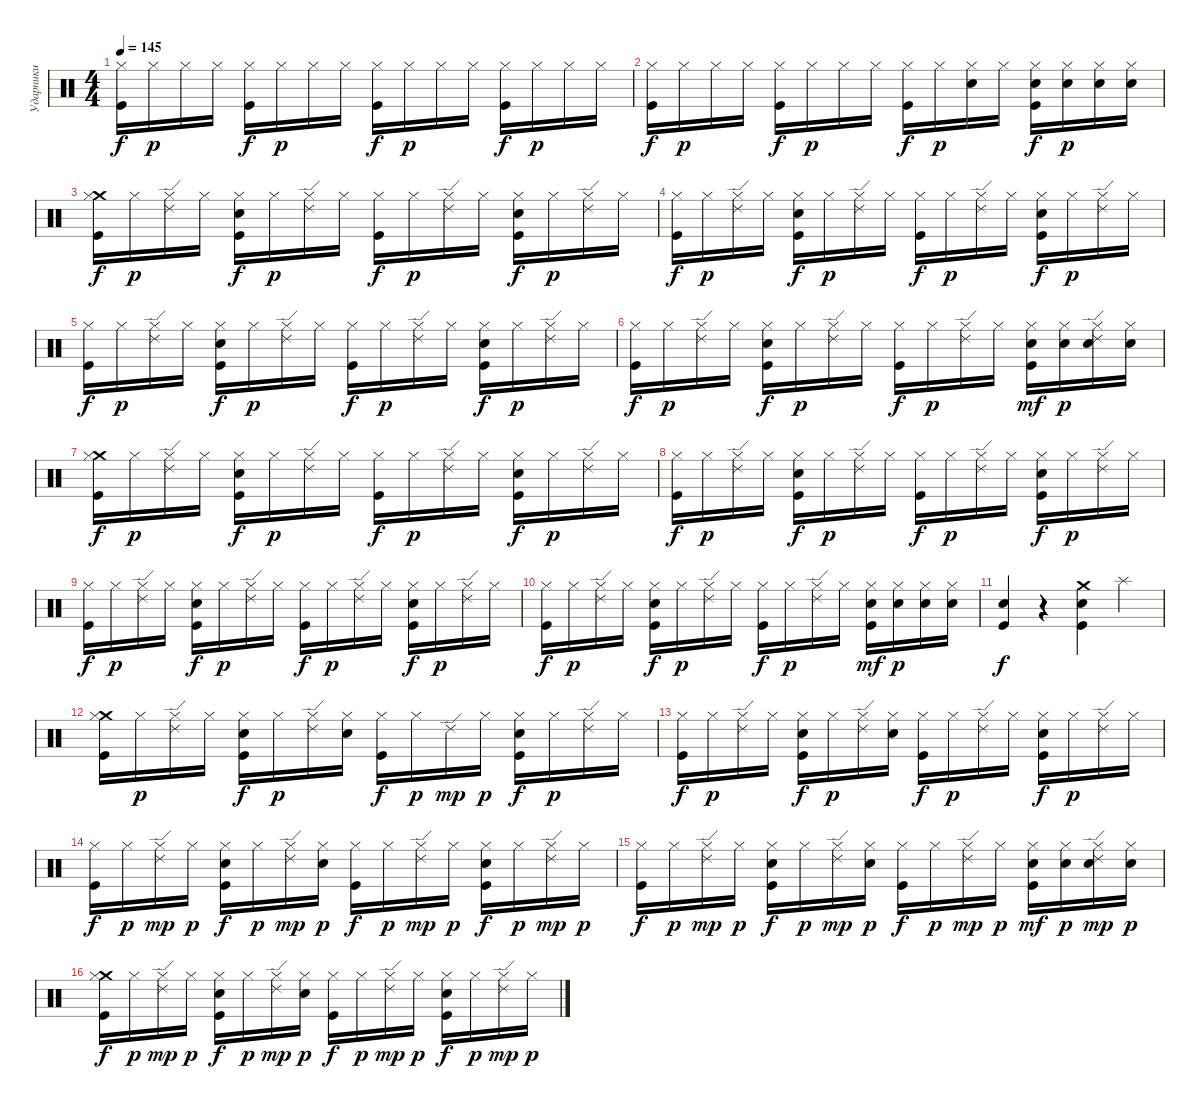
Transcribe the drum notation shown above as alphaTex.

\track ("Ударники" "Ударники") {instrument percussion}
\staff {score}
\articulation defaults
\ts (4 4)
\tempo 145
\clef neutral
\ks c
("Kick (hit)" "Hi-Hat (closed)").16{dy f} "Hi-Hat (closed)".16{dy p} "Hi-Hat (closed)".16 "Hi-Hat (closed)".16 ("Kick (hit)" "Hi-Hat (closed)").16{dy f} "Hi-Hat (closed)".16{dy p} "Hi-Hat (closed)".16 "Hi-Hat (closed)".16 ("Kick (hit)" "Hi-Hat (closed)").16{dy f} "Hi-Hat (closed)".16{dy p} "Hi-Hat (closed)".16 "Hi-Hat (closed)".16 ("Kick (hit)" "Hi-Hat (closed)").16{dy f} "Hi-Hat (closed)".16{dy p} "Hi-Hat (closed)".16 "Hi-Hat (closed)".16 |
("Kick (hit)" "Hi-Hat (closed)").16{dy f} "Hi-Hat (closed)".16{dy p} "Hi-Hat (closed)".16 "Hi-Hat (closed)".16 ("Kick (hit)" "Hi-Hat (closed)").16{dy f} "Hi-Hat (closed)".16{dy p} "Hi-Hat (closed)".16 "Hi-Hat (closed)".16 ("Kick (hit)" "Hi-Hat (closed)").16{dy f} "Hi-Hat (closed)".16{dy p} ("Hi-Hat (closed)" "Electric Snare (hit)").16 "Hi-Hat (closed)".16 ("Kick (hit)" "Hi-Hat (closed)" "Electric Snare (hit)").16{dy f} ("Hi-Hat (closed)" "Electric Snare (hit)").16{dy p} ("Hi-Hat (closed)" "Electric Snare (hit)").16 ("Hi-Hat (closed)" "Electric Snare (hit)").16 |
("Crash medium (hit)" "Kick (hit)" "Hi-Hat (closed)").16{dy f} "Hi-Hat (closed)".16{dy p} ("Ride (edge) 2" "Hi-Hat (closed)").16 "Hi-Hat (closed)".16 ("Electric Snare (hit)" "Kick (hit)" "Hi-Hat (closed)").16{dy f} "Hi-Hat (closed)".16{dy p} ("Ride (edge) 2" "Hi-Hat (closed)").16 "Hi-Hat (closed)".16 ("Kick (hit)" "Hi-Hat (closed)").16{dy f} "Hi-Hat (closed)".16{dy p} ("Ride (edge) 2" "Hi-Hat (closed)").16 "Hi-Hat (closed)".16 ("Electric Snare (hit)" "Kick (hit)" "Hi-Hat (closed)").16{dy f} "Hi-Hat (closed)".16{dy p} ("Ride (edge) 2" "Hi-Hat (closed)").16 "Hi-Hat (closed)".16 |
("Kick (hit)" "Hi-Hat (closed)").16{dy f} "Hi-Hat (closed)".16{dy p} ("Ride (edge) 2" "Hi-Hat (closed)").16 "Hi-Hat (closed)".16 ("Electric Snare (hit)" "Kick (hit)" "Hi-Hat (closed)").16{dy f} "Hi-Hat (closed)".16{dy p} ("Ride (edge) 2" "Hi-Hat (closed)").16 "Hi-Hat (closed)".16 ("Kick (hit)" "Hi-Hat (closed)").16{dy f} "Hi-Hat (closed)".16{dy p} ("Ride (edge) 2" "Hi-Hat (closed)").16 "Hi-Hat (closed)".16 ("Electric Snare (hit)" "Kick (hit)" "Hi-Hat (closed)").16{dy f} "Hi-Hat (closed)".16{dy p} ("Ride (edge) 2" "Hi-Hat (closed)").16 "Hi-Hat (closed)".16 |
("Kick (hit)" "Hi-Hat (closed)").16{dy f} "Hi-Hat (closed)".16{dy p} ("Ride (edge) 2" "Hi-Hat (closed)").16 "Hi-Hat (closed)".16 ("Electric Snare (hit)" "Kick (hit)" "Hi-Hat (closed)").16{dy f} "Hi-Hat (closed)".16{dy p} ("Ride (edge) 2" "Hi-Hat (closed)").16 "Hi-Hat (closed)".16 ("Kick (hit)" "Hi-Hat (closed)").16{dy f} "Hi-Hat (closed)".16{dy p} ("Ride (edge) 2" "Hi-Hat (closed)").16 "Hi-Hat (closed)".16 ("Electric Snare (hit)" "Kick (hit)" "Hi-Hat (closed)").16{dy f} "Hi-Hat (closed)".16{dy p} ("Ride (edge) 2" "Hi-Hat (closed)").16 "Hi-Hat (closed)".16 |
("Kick (hit)" "Hi-Hat (closed)").16{dy f} "Hi-Hat (closed)".16{dy p} ("Ride (edge) 2" "Hi-Hat (closed)").16 "Hi-Hat (closed)".16 ("Electric Snare (hit)" "Kick (hit)" "Hi-Hat (closed)").16{dy f} "Hi-Hat (closed)".16{dy p} ("Ride (edge) 2" "Hi-Hat (closed)").16 "Hi-Hat (closed)".16 ("Kick (hit)" "Hi-Hat (closed)").16{dy f} "Hi-Hat (closed)".16{dy p} ("Ride (edge) 2" "Hi-Hat (closed)").16 "Hi-Hat (closed)".16 ("Electric Snare (hit)" "Kick (hit)" "Hi-Hat (closed)").16{dy mf} ("Electric Snare (hit)" "Hi-Hat (closed)").16{dy p} ("Electric Snare (hit)" "Ride (edge) 2" "Hi-Hat (closed)").16 ("Electric Snare (hit)" "Hi-Hat (closed)").16 |
("Crash medium (hit)" "Kick (hit)" "Hi-Hat (closed)").16{dy f} "Hi-Hat (closed)".16{dy p} ("Ride (edge) 2" "Hi-Hat (closed)").16 "Hi-Hat (closed)".16 ("Electric Snare (hit)" "Kick (hit)" "Hi-Hat (closed)").16{dy f} "Hi-Hat (closed)".16{dy p} ("Ride (edge) 2" "Hi-Hat (closed)").16 "Hi-Hat (closed)".16 ("Kick (hit)" "Hi-Hat (closed)").16{dy f} "Hi-Hat (closed)".16{dy p} ("Ride (edge) 2" "Hi-Hat (closed)").16 "Hi-Hat (closed)".16 ("Electric Snare (hit)" "Kick (hit)" "Hi-Hat (closed)").16{dy f} "Hi-Hat (closed)".16{dy p} ("Ride (edge) 2" "Hi-Hat (closed)").16 "Hi-Hat (closed)".16 |
("Kick (hit)" "Hi-Hat (closed)").16{dy f} "Hi-Hat (closed)".16{dy p} ("Ride (edge) 2" "Hi-Hat (closed)").16 "Hi-Hat (closed)".16 ("Electric Snare (hit)" "Kick (hit)" "Hi-Hat (closed)").16{dy f} "Hi-Hat (closed)".16{dy p} ("Ride (edge) 2" "Hi-Hat (closed)").16 "Hi-Hat (closed)".16 ("Kick (hit)" "Hi-Hat (closed)").16{dy f} "Hi-Hat (closed)".16{dy p} ("Ride (edge) 2" "Hi-Hat (closed)").16 "Hi-Hat (closed)".16 ("Electric Snare (hit)" "Kick (hit)" "Hi-Hat (closed)").16{dy f} "Hi-Hat (closed)".16{dy p} ("Ride (edge) 2" "Hi-Hat (closed)").16 "Hi-Hat (closed)".16 |
("Kick (hit)" "Hi-Hat (closed)").16{dy f} "Hi-Hat (closed)".16{dy p} ("Ride (edge) 2" "Hi-Hat (closed)").16 "Hi-Hat (closed)".16 ("Electric Snare (hit)" "Kick (hit)" "Hi-Hat (closed)").16{dy f} "Hi-Hat (closed)".16{dy p} ("Ride (edge) 2" "Hi-Hat (closed)").16 "Hi-Hat (closed)".16 ("Kick (hit)" "Hi-Hat (closed)").16{dy f} "Hi-Hat (closed)".16{dy p} ("Ride (edge) 2" "Hi-Hat (closed)").16 "Hi-Hat (closed)".16 ("Electric Snare (hit)" "Kick (hit)" "Hi-Hat (closed)").16{dy f} "Hi-Hat (closed)".16{dy p} ("Ride (edge) 2" "Hi-Hat (closed)").16 "Hi-Hat (closed)".16 |
("Kick (hit)" "Hi-Hat (closed)").16{dy f} "Hi-Hat (closed)".16{dy p} ("Ride (edge) 2" "Hi-Hat (closed)").16 "Hi-Hat (closed)".16 ("Electric Snare (hit)" "Kick (hit)" "Hi-Hat (closed)").16{dy f} "Hi-Hat (closed)".16{dy p} ("Ride (edge) 2" "Hi-Hat (closed)").16 "Hi-Hat (closed)".16 ("Kick (hit)" "Hi-Hat (closed)").16{dy f} "Hi-Hat (closed)".16{dy p} ("Ride (edge) 2" "Hi-Hat (closed)").16 "Hi-Hat (closed)".16 ("Electric Snare (hit)" "Kick (hit)" "Hi-Hat (closed)").16{dy mf} ("Electric Snare (hit)" "Hi-Hat (closed)").16{dy p} ("Electric Snare (hit)" "Hi-Hat (closed)").16 ("Electric Snare (hit)" "Hi-Hat (closed)").16 |
("Electric Snare (hit)" "Kick (hit)").4{dy f} r.4 ("Crash medium (hit)" "Kick (hit)" "Electric Snare (hit)").4 "Splash (hit)".4 |
("Crash medium (hit)" "Kick (hit)" "Hi-Hat (closed)").16 "Hi-Hat (closed)".16{dy p} ("Ride (edge) 2" "Hi-Hat (closed)").16 "Hi-Hat (closed)".16 ("Electric Snare (hit)" "Kick (hit)" "Hi-Hat (closed)").16{dy f} "Hi-Hat (closed)".16{dy p} ("Ride (edge) 2" "Hi-Hat (closed)").16 ("Electric Snare (hit)" "Hi-Hat (closed)").16 ("Kick (hit)" "Hi-Hat (closed)").16{dy f} "Hi-Hat (closed)".16{dy p} "Ride (edge) 2".16{dy mp} "Hi-Hat (closed)".16{dy p} ("Electric Snare (hit)" "Kick (hit)" "Hi-Hat (closed)").16{dy f} "Hi-Hat (closed)".16{dy p} ("Ride (edge) 2" "Hi-Hat (closed)").16 "Hi-Hat (closed)".16 |
("Kick (hit)" "Hi-Hat (closed)").16{dy f} "Hi-Hat (closed)".16{dy p} ("Ride (edge) 2" "Hi-Hat (closed)").16 "Hi-Hat (closed)".16 ("Electric Snare (hit)" "Kick (hit)" "Hi-Hat (closed)").16{dy f} "Hi-Hat (closed)".16{dy p} ("Ride (edge) 2" "Hi-Hat (closed)").16 ("Electric Snare (hit)" "Hi-Hat (closed)").16 ("Kick (hit)" "Hi-Hat (closed)").16{dy f} "Hi-Hat (closed)".16{dy p} ("Ride (edge) 2" "Hi-Hat (closed)").16 "Hi-Hat (closed)".16 ("Electric Snare (hit)" "Kick (hit)" "Hi-Hat (closed)").16{dy f} "Hi-Hat (closed)".16{dy p} ("Ride (edge) 2" "Hi-Hat (closed)").16 "Hi-Hat (closed)".16 |
("Kick (hit)" "Hi-Hat (closed)").16{dy f} "Hi-Hat (closed)".16{dy p} ("Hi-Hat (closed)" "Ride (edge) 2").16{dy mp} "Hi-Hat (closed)".16{dy p} ("Electric Snare (hit)" "Kick (hit)" "Hi-Hat (closed)").16{dy f} "Hi-Hat (closed)".16{dy p} ("Hi-Hat (closed)" "Ride (edge) 2").16{dy mp} ("Electric Snare (hit)" "Hi-Hat (closed)").16{dy p} ("Kick (hit)" "Hi-Hat (closed)").16{dy f} "Hi-Hat (closed)".16{dy p} ("Hi-Hat (closed)" "Ride (edge) 2").16{dy mp} "Hi-Hat (closed)".16{dy p} ("Electric Snare (hit)" "Kick (hit)" "Hi-Hat (closed)").16{dy f} "Hi-Hat (closed)".16{dy p} ("Hi-Hat (closed)" "Ride (edge) 2").16{dy mp} "Hi-Hat (closed)".16{dy p} |
("Kick (hit)" "Hi-Hat (closed)").16{dy f} "Hi-Hat (closed)".16{dy p} ("Hi-Hat (closed)" "Ride (edge) 2").16{dy mp} "Hi-Hat (closed)".16{dy p} ("Electric Snare (hit)" "Kick (hit)" "Hi-Hat (closed)").16{dy f} "Hi-Hat (closed)".16{dy p} ("Hi-Hat (closed)" "Ride (edge) 2").16{dy mp} ("Electric Snare (hit)" "Hi-Hat (closed)").16{dy p} ("Kick (hit)" "Hi-Hat (closed)").16{dy f} "Hi-Hat (closed)".16{dy p} ("Hi-Hat (closed)" "Ride (edge) 2").16{dy mp} "Hi-Hat (closed)".16{dy p} ("Electric Snare (hit)" "Kick (hit)" "Hi-Hat (closed)").16{dy mf} ("Electric Snare (hit)" "Hi-Hat (closed)").16{dy p} ("Electric Snare (hit)" "Hi-Hat (closed)" "Ride (edge) 2").16{dy mp} ("Electric Snare (hit)" "Hi-Hat (closed)").16{dy p} |
("Crash medium (hit)" "Kick (hit)" "Hi-Hat (closed)").16{dy f} "Hi-Hat (closed)".16{dy p} ("Hi-Hat (closed)" "Ride (edge) 2").16{dy mp} "Hi-Hat (closed)".16{dy p} ("Electric Snare (hit)" "Kick (hit)" "Hi-Hat (closed)").16{dy f} "Hi-Hat (closed)".16{dy p} ("Hi-Hat (closed)" "Ride (edge) 2").16{dy mp} ("Electric Snare (hit)" "Hi-Hat (closed)").16{dy p} ("Kick (hit)" "Hi-Hat (closed)").16{dy f} "Hi-Hat (closed)".16{dy p} ("Hi-Hat (closed)" "Ride (edge) 2").16{dy mp} "Hi-Hat (closed)".16{dy p} ("Electric Snare (hit)" "Kick (hit)" "Hi-Hat (closed)").16{dy f} "Hi-Hat (closed)".16{dy p} ("Hi-Hat (closed)" "Ride (edge) 2").16{dy mp} "Hi-Hat (closed)".16{dy p}
